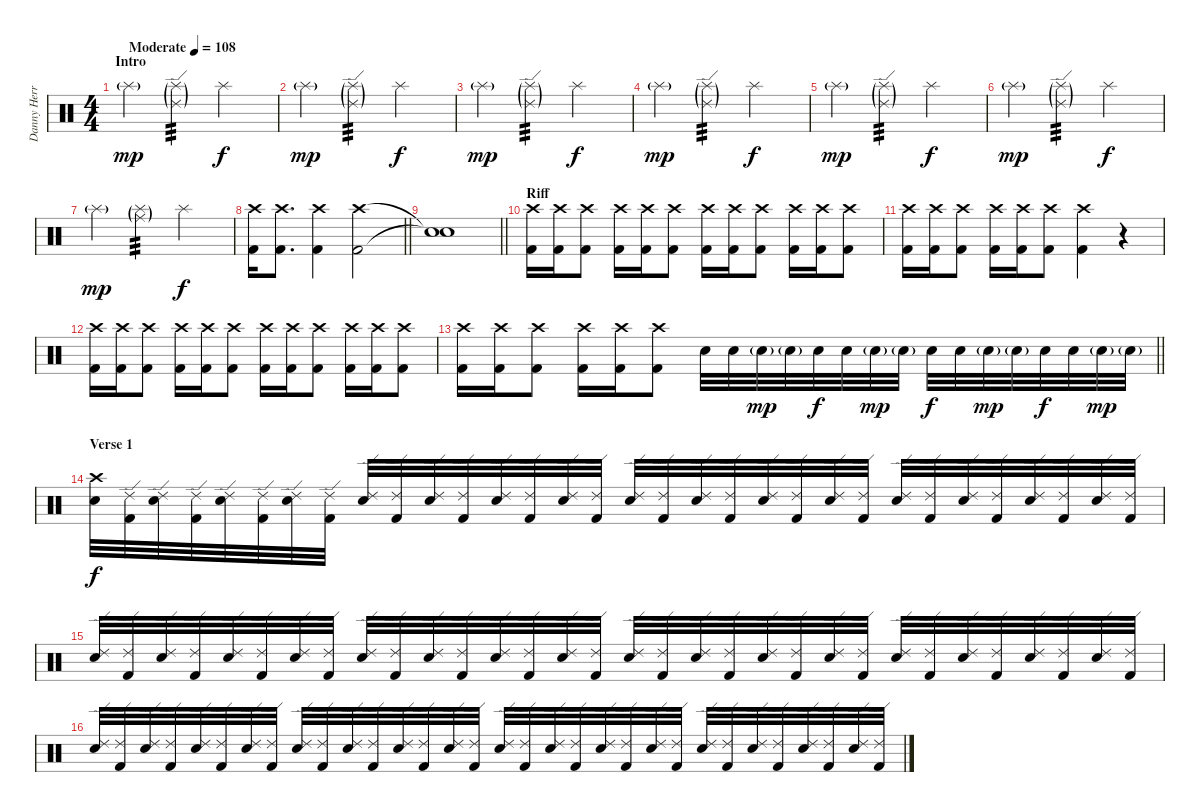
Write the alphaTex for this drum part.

\track ("Danny Herrera " "Danny Herr") {instrument percussion}
\staff {score}
\articulation defaults
\ts (4 4)
\section ("" "Intro")
\tempo (108 "Moderate")
\clef neutral
\ks c "Splash (hit)"{g}.4{dy mp}
("Splash (hit)"{g} "Ride (edge) 2"{g}).4{tp 3} "Splash (hit)".2{dy f} |
"Splash (hit)"{g}.4{dy mp} ("Splash (hit)"{g} "Ride (edge) 2"{g}).4{tp 3} "Splash (hit)".2{dy f} |
"Splash (hit)"{g}.4{dy mp} ("Splash (hit)"{g} "Ride (edge) 2"{g}).4{tp 3} "Splash (hit)".2{dy f} |
"Splash (hit)"{g}.4{dy mp} ("Splash (hit)"{g} "Ride (edge) 2"{g}).4{tp 3} "Splash (hit)".2{dy f} |
"Splash (hit)"{g}.4{dy mp} ("Splash (hit)"{g} "Ride (edge) 2"{g}).4{tp 3} "Splash (hit)".2{dy f} |
"Splash (hit)"{g}.4{dy mp} ("Splash (hit)"{g} "Ride (edge) 2"{g}).4{tp 3} "Splash (hit)".2{dy f} |
"Splash (hit)"{g}.4{dy mp} ("Splash (hit)"{g} "Ride (middle)"{g}).4{tp 3} "Splash (hit)".2{dy f} |
\barLineRight lightlight
("Kick (hit) 2" "Crash high (hit)").16 ("Kick (hit) 2" "Crash high (hit)").8{d} ("Kick (hit) 2" "Crash high (hit)").4 ("Kick (hit) 2" "Crash high (hit)").2 |
\barLineRight lightlight
("Snare (hit)"{t} "Snare (hit)"{t}).1 |
\section ("" "Riff")
("Kick (hit) 2" "Crash high (hit)").16 ("Kick (hit) 2" "Crash high (hit)").16 ("Kick (hit) 2" "Crash high (hit)").8 ("Kick (hit) 2" "Crash high (hit)").16 ("Kick (hit) 2" "Crash high (hit)").16 ("Kick (hit) 2" "Crash high (hit)").8 ("Kick (hit) 2" "Crash high (hit)").16 ("Kick (hit) 2" "Crash high (hit)").16 ("Kick (hit) 2" "Crash high (hit)").8 ("Kick (hit) 2" "Crash high (hit)").16 ("Kick (hit) 2" "Crash high (hit)").16 ("Kick (hit) 2" "Crash high (hit)").8 |
("Kick (hit) 2" "Crash high (hit)").16 ("Kick (hit) 2" "Crash high (hit)").16 ("Kick (hit) 2" "Crash high (hit)").8 ("Kick (hit) 2" "Crash high (hit)").16 ("Kick (hit) 2" "Crash high (hit)").16 ("Kick (hit) 2" "Crash high (hit)").8 ("Kick (hit) 2" "Crash high (hit)").4 r.4 |
("Kick (hit) 2" "Crash high (hit)").16 ("Kick (hit) 2" "Crash high (hit)").16 ("Kick (hit) 2" "Crash high (hit)").8 ("Kick (hit) 2" "Crash high (hit)").16 ("Kick (hit) 2" "Crash high (hit)").16 ("Kick (hit) 2" "Crash high (hit)").8 ("Kick (hit) 2" "Crash high (hit)").16 ("Kick (hit) 2" "Crash high (hit)").16 ("Kick (hit) 2" "Crash high (hit)").8 ("Kick (hit) 2" "Crash high (hit)").16 ("Kick (hit) 2" "Crash high (hit)").16 ("Kick (hit) 2" "Crash high (hit)").8 |
\barLineRight lightlight
("Kick (hit) 2" "Crash high (hit)").16 ("Kick (hit) 2" "Crash high (hit)").16 ("Kick (hit) 2" "Crash high (hit)").8 ("Kick (hit) 2" "Crash high (hit)").16 ("Kick (hit) 2" "Crash high (hit)").16 ("Kick (hit) 2" "Crash high (hit)").8 "Snare (hit) 2".32 "Snare (hit) 2".32 "Snare (hit) 2"{g}.32{dy mp} "Snare (hit) 2"{g}.32 "Snare (hit) 2".32{dy f} "Snare (hit) 2".32 "Snare (hit) 2"{g}.32{dy mp} "Snare (hit) 2"{g}.32 "Snare (hit) 2".32{dy f} "Snare (hit) 2".32 "Snare (hit) 2"{g}.32{dy mp} "Snare (hit) 2"{g}.32 "Snare (hit) 2".32{dy f} "Snare (hit) 2".32 "Snare (hit) 2"{g}.32{dy mp} "Snare (hit) 2"{g}.32 |
\section ("" "Verse 1")
("Snare (hit) 2" "Crash high (hit)").32{dy f} ("Kick (hit) 2" "Ride (edge) 2").32 ("Snare (hit) 2" "Ride (edge) 2").32 ("Kick (hit) 2" "Ride (edge) 2").32 ("Snare (hit) 2" "Ride (edge) 2").32 ("Kick (hit) 2" "Ride (edge) 2").32 ("Snare (hit) 2" "Ride (edge) 2").32 ("Kick (hit) 2" "Ride (edge) 2").32 ("Snare (hit) 2" "Ride (edge) 2").32 ("Kick (hit) 2" "Ride (edge) 2").32 ("Snare (hit) 2" "Ride (edge) 2").32 ("Kick (hit) 2" "Ride (edge) 2").32 ("Snare (hit) 2" "Ride (edge) 2").32 ("Kick (hit) 2" "Ride (edge) 2").32 ("Snare (hit) 2" "Ride (edge) 2").32 ("Kick (hit) 2" "Ride (edge) 2").32 ("Snare (hit) 2" "Ride (edge) 2").32 ("Kick (hit) 2" "Ride (edge) 2").32 ("Snare (hit) 2" "Ride (edge) 2").32 ("Kick (hit) 2" "Ride (edge) 2").32 ("Snare (hit) 2" "Ride (edge) 2").32 ("Kick (hit) 2" "Ride (edge) 2").32 ("Snare (hit) 2" "Ride (edge) 2").32 ("Kick (hit) 2" "Ride (edge) 2").32 ("Snare (hit) 2" "Ride (edge) 2").32 ("Kick (hit) 2" "Ride (edge) 2").32 ("Snare (hit) 2" "Ride (edge) 2").32 ("Kick (hit) 2" "Ride (edge) 2").32 ("Snare (hit) 2" "Ride (edge) 2").32 ("Kick (hit) 2" "Ride (edge) 2").32 ("Snare (hit) 2" "Ride (edge) 2").32 ("Kick (hit) 2" "Ride (edge) 2").32 |
("Snare (hit) 2" "Ride (edge) 2").32 ("Kick (hit) 2" "Ride (edge) 2").32 ("Snare (hit) 2" "Ride (edge) 2").32 ("Kick (hit) 2" "Ride (edge) 2").32 ("Snare (hit) 2" "Ride (edge) 2").32 ("Kick (hit) 2" "Ride (edge) 2").32 ("Snare (hit) 2" "Ride (edge) 2").32 ("Kick (hit) 2" "Ride (edge) 2").32 ("Snare (hit) 2" "Ride (edge) 2").32 ("Kick (hit) 2" "Ride (edge) 2").32 ("Snare (hit) 2" "Ride (edge) 2").32 ("Kick (hit) 2" "Ride (edge) 2").32 ("Snare (hit) 2" "Ride (edge) 2").32 ("Kick (hit) 2" "Ride (edge) 2").32 ("Snare (hit) 2" "Ride (edge) 2").32 ("Kick (hit) 2" "Ride (edge) 2").32 ("Snare (hit) 2" "Ride (edge) 2").32 ("Kick (hit) 2" "Ride (edge) 2").32 ("Snare (hit) 2" "Ride (edge) 2").32 ("Kick (hit) 2" "Ride (edge) 2").32 ("Snare (hit) 2" "Ride (edge) 2").32 ("Kick (hit) 2" "Ride (edge) 2").32 ("Snare (hit) 2" "Ride (edge) 2").32 ("Kick (hit) 2" "Ride (edge) 2").32 ("Snare (hit) 2" "Ride (edge) 2").32 ("Kick (hit) 2" "Ride (edge) 2").32 ("Snare (hit) 2" "Ride (edge) 2").32 ("Kick (hit) 2" "Ride (edge) 2").32 ("Snare (hit) 2" "Ride (edge) 2").32 ("Kick (hit) 2" "Ride (edge) 2").32 ("Snare (hit) 2" "Ride (edge) 2").32 ("Kick (hit) 2" "Ride (edge) 2").32 |
("Snare (hit) 2" "Ride (edge) 2").32 ("Kick (hit) 2" "Ride (edge) 2").32 ("Snare (hit) 2" "Ride (edge) 2").32 ("Kick (hit) 2" "Ride (edge) 2").32 ("Snare (hit) 2" "Ride (edge) 2").32 ("Kick (hit) 2" "Ride (edge) 2").32 ("Snare (hit) 2" "Ride (edge) 2").32 ("Kick (hit) 2" "Ride (edge) 2").32 ("Snare (hit) 2" "Ride (edge) 2").32 ("Kick (hit) 2" "Ride (edge) 2").32 ("Snare (hit) 2" "Ride (edge) 2").32 ("Kick (hit) 2" "Ride (edge) 2").32 ("Snare (hit) 2" "Ride (edge) 2").32 ("Kick (hit) 2" "Ride (edge) 2").32 ("Snare (hit) 2" "Ride (edge) 2").32 ("Kick (hit) 2" "Ride (edge) 2").32 ("Snare (hit) 2" "Ride (edge) 2").32 ("Kick (hit) 2" "Ride (edge) 2").32 ("Snare (hit) 2" "Ride (edge) 2").32 ("Kick (hit) 2" "Ride (edge) 2").32 ("Snare (hit) 2" "Ride (edge) 2").32 ("Kick (hit) 2" "Ride (edge) 2").32 ("Snare (hit) 2" "Ride (edge) 2").32 ("Kick (hit) 2" "Ride (edge) 2").32 ("Snare (hit) 2" "Ride (edge) 2").32 ("Kick (hit) 2" "Ride (edge) 2").32 ("Snare (hit) 2" "Ride (edge) 2").32 ("Kick (hit) 2" "Ride (edge) 2").32 ("Snare (hit) 2" "Ride (edge) 2").32 ("Kick (hit) 2" "Ride (edge) 2").32 ("Snare (hit) 2" "Ride (edge) 2").32 ("Kick (hit) 2" "Ride (edge) 2").32
